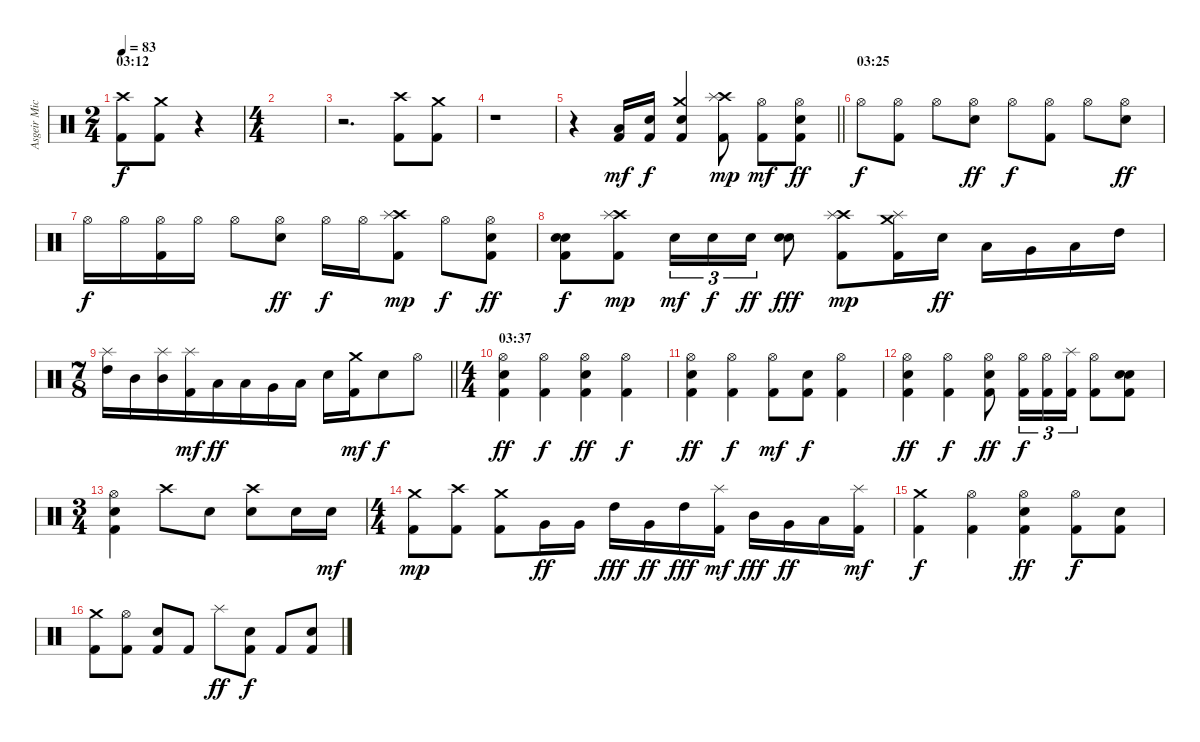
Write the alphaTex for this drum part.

\track ("Asgeir Mickelson" "Asgeir Mic") {instrument percussion}
\staff {score}
\articulation defaults
\ts (2 4)
\section ("" "03:12")
\tempo 83
\clef neutral
\ks c
("Crash high (hit)" "Kick (hit) 2").8{dy f} ("Crash medium (hit)" "Kick (hit) 2").8 r.4 |
\ts (4 4)
|
r.2{d} ("Crash high (hit)" "Kick (hit) 2").8 ("Crash medium (hit)" "Kick (hit) 2").8 |
r.1 |
\barLineRight lightlight
r.4 ("Low Tom (hit)" "Kick (hit) 2").16{dy mf} ("Snare (hit) 2" "Kick (hit) 2").16{dy f} ("Crash medium (hit)" "Snare (hit) 2" "Kick (hit) 2").4 ("Crash high (hit)" "Splash (hit)" "Kick (hit) 2").8{dy mp} ("Hi-Hat (open)" "Kick (hit) 2").8{dy mf} ("Snare (hit) 2" "Hi-Hat (open)" "Kick (hit) 2").8{dy ff} |
\section ("" "03:25")
"Hi-Hat (open)".8{dy f} ("Hi-Hat (open)" "Kick (hit) 2").8 "Hi-Hat (open)".8 ("Snare (hit) 2" "Hi-Hat (open)").8{dy ff} "Hi-Hat (open)".8{dy f} ("Hi-Hat (open)" "Kick (hit) 2").8 "Hi-Hat (open)".8 ("Snare (hit) 2" "Hi-Hat (open)").8{dy ff} |
"Hi-Hat (open)".16{dy f} "Hi-Hat (open)".16 ("Hi-Hat (open)" "Kick (hit) 2").16 "Hi-Hat (open)".16 "Hi-Hat (open)".8 ("Snare (hit) 2" "Hi-Hat (open)").8{dy ff} "Hi-Hat (open)".16{dy f} "Hi-Hat (open)".16 ("Crash high (hit)" "Splash (hit)" "Kick (hit) 2").8{dy mp} "Hi-Hat (open)".8{dy f} ("Snare (hit) 2" "Hi-Hat (open)" "Kick (hit) 2").8{dy ff} |
("Snare (hit) 2" "Snare (hit) 2" "Kick (hit) 2").8{dy f} ("Crash high (hit)" "Splash (hit)" "Kick (hit) 2").8{dy mp} "Snare (hit) 2".16{tu (3 2) dy mf} "Snare (hit) 2".16{tu (3 2) dy f} "Snare (hit) 2".16{tu (3 2) dy ff} ("Snare (hit) 2" "Snare (hit) 2").8{dy fff} ("Crash high (hit)" "Splash (hit)" "Kick (hit) 2").8{dy mp} ("Crash medium (hit)" "Splash (hit)" "Kick (hit) 2").16 "Snare (hit) 2".16{dy ff} "Low Tom (hit)".16 "Very Low Tom (hit)".16 "Low Floor Tom (hit)".16 "High Tom (hit)".16 |
\ts (7 8)
\barLineRight lightlight
("Splash (hit)" "High Tom (hit)").16 "Mid Tom (hit)".16 ("Splash (hit)" "Mid Tom (hit)").16 ("Splash (hit)" "Kick (hit) 2").16{dy mf} "Low Tom (hit)".16{dy ff} "Low Tom (hit)".16 "Very Low Tom (hit)".16 "Low Floor Tom (hit)".16 "Snare (hit) 2".16 ("Crash medium (hit)" "Kick (hit) 2").16{dy mf} "Snare (hit) 2".8{dy f} "Hi-Hat (open)".8 |
\ts (4 4)
\section ("" "03:37")
("Snare (hit) 2" "Hi-Hat (open)" "Kick (hit) 2").4{dy ff} ("Hi-Hat (open)" "Kick (hit) 2").4{dy f} ("Snare (hit) 2" "Hi-Hat (open)" "Kick (hit) 2").4{dy ff} ("Hi-Hat (open)" "Kick (hit) 2").4{dy f} |
("Snare (hit) 2" "Hi-Hat (open)" "Kick (hit) 2").4{dy ff} ("Hi-Hat (open)" "Kick (hit) 2").4{dy f} ("Hi-Hat (open)" "Kick (hit) 2").8{dy mf} ("Snare (hit) 2" "Kick (hit) 2").8{dy f} ("Hi-Hat (open)" "Kick (hit) 2").4 |
("Snare (hit) 2" "Hi-Hat (open)" "Kick (hit) 2").4{dy ff} ("Hi-Hat (open)" "Kick (hit) 2").4{dy f} ("Snare (hit) 2" "Hi-Hat (open)" "Kick (hit) 2").8{dy ff} ("Hi-Hat (open)" "Kick (hit) 2").16{tu (3 2) dy f} ("Hi-Hat (open)" "Kick (hit) 2").16{tu (3 2)} ("Splash (hit)" "Kick (hit) 2").16{tu (3 2)} ("Hi-Hat (open)" "Kick (hit) 2").8 ("Snare (hit) 2" "Snare (hit) 2" "Kick (hit) 2").8 |
\ts (3 4)
("Snare (hit) 2" "Hi-Hat (open)" "Kick (hit) 2").4 "Crash high (hit)".8 "Snare (hit) 2".8 ("Crash high (hit)" "Snare (hit) 2").8 "Snare (hit) 2".16 "Snare (hit) 2".16{dy mf} |
\ts (4 4)
("Crash medium (hit)" "Kick (hit) 2").8{dy mp} ("Crash high (hit)" "Kick (hit) 2").8 ("Crash medium (hit)" "Kick (hit) 2").8 "Very Low Tom (hit)".16{dy ff} "Very Low Tom (hit)".16 "High Tom (hit)".16{dy fff} "Very Low Tom (hit)".16{dy ff} "High Tom (hit)".16{dy fff} ("Splash (hit)" "Kick (hit) 2").16{dy mf} "Mid Tom (hit)".16{dy fff} "Very Low Tom (hit)".16{dy ff} "Low Floor Tom (hit)".16 ("Splash (hit)" "Kick (hit) 2").16{dy mf} |
("Crash medium (hit)" "Kick (hit) 2").4{dy f} ("Hi-Hat (open)" "Kick (hit) 2").4 ("Snare (hit) 2" "Hi-Hat (open)" "Kick (hit) 2").4{dy ff} ("Hi-Hat (open)" "Kick (hit) 2").8{dy f} ("Snare (hit) 2" "Kick (hit) 2").8 |
("Crash medium (hit)" "Kick (hit) 2").8 ("Hi-Hat (open)" "Kick (hit) 2").8 ("Snare (hit) 2" "Kick (hit) 2").8 "Kick (hit) 2".8 "Splash (hit)".8{dy ff} ("Snare (hit) 2" "Kick (hit) 2").8{dy f} "Kick (hit) 2".8 ("Snare (hit) 2" "Kick (hit) 2").8
